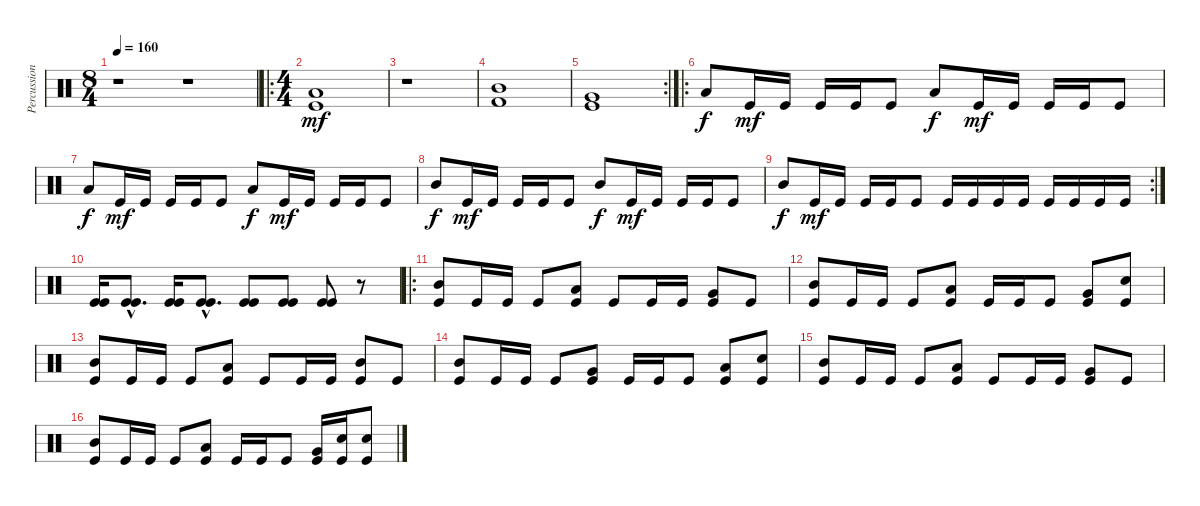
\track ("Percussion" "Percussion") {instrument percussion}
\staff {score}
\articulation defaults
\ts (8 4)
\tempo 160
\clef neutral
\ks c
r.1{dy mf} r.1 |
\ro
\ts (4 4)
("Low Tom (hit)" "Kick (hit)").1 |
r.1 |
("Mid Tom (hit)" "Kick (hit) 2").1 |
\rc 2
("Very Low Tom (hit)" "Kick (hit)").1 |
\ro "Low Tom (hit)".8{dy f} "Kick (hit)".16{dy mf} "Kick (hit)".16 "Kick (hit)".16 "Kick (hit)".16 "Kick (hit)".8 "Low Tom (hit)".8{dy f} "Kick (hit)".16{dy mf} "Kick (hit)".16 "Kick (hit)".16 "Kick (hit)".16 "Kick (hit)".8
|
"Low Tom (hit)".8{dy f} "Kick (hit)".16{dy mf} "Kick (hit)".16 "Kick (hit)".16 "Kick (hit)".16 "Kick (hit)".8 "Low Tom (hit)".8{dy f} "Kick (hit)".16{dy mf} "Kick (hit)".16 "Kick (hit)".16 "Kick (hit)".16 "Kick (hit)".8 |
"Mid Tom (hit)".8{dy f} "Kick (hit)".16{dy mf} "Kick (hit)".16 "Kick (hit)".16 "Kick (hit)".16 "Kick (hit)".8 "Mid Tom (hit)".8{dy f} "Kick (hit)".16{dy mf} "Kick (hit)".16 "Kick (hit)".16 "Kick (hit)".16 "Kick (hit)".8 |
\rc 2 "Mid Tom (hit)".8{dy f} "Kick (hit)".16{dy mf} "Kick (hit)".16 "Kick (hit)".16 "Kick (hit)".16 "Kick (hit)".8 "Kick (hit)".16 "Kick (hit)".16 "Kick (hit)".16 "Kick (hit)".16 "Kick (hit)".16 "Kick (hit)".16 "Kick (hit)".16 "Kick (hit)".16
|
("Kick (hit)" "Kick (hit)").16 ("Kick (hit)"{hac} "Kick (hit)"{hac}).8{d} ("Kick (hit)" "Kick (hit)").16 ("Kick (hit)"{hac} "Kick (hit)"{hac}).8{d} ("Kick (hit)" "Kick (hit)").8 ("Kick (hit)" "Kick (hit)").8 ("Kick (hit)" "Kick (hit)").8 r.8 |
\ro
("Kick (hit)" "Mid Tom (hit)").8 "Kick (hit)".16 "Kick (hit)".16 "Kick (hit)".8 ("Kick (hit)" "Low Tom (hit)").8 "Kick (hit)".8 "Kick (hit)".16 "Kick (hit)".16 ("Kick (hit)" "Very Low Tom (hit)").8 "Kick (hit)".8 |
("Kick (hit)" "Mid Tom (hit)").8 "Kick (hit)".16 "Kick (hit)".16 "Kick (hit)".8 ("Kick (hit)" "Low Tom (hit)").8 "Kick (hit)".16 "Kick (hit)".16 "Kick (hit)".8 ("Kick (hit)" "Very Low Tom (hit)").8 ("Kick (hit)" "Electric Snare (hit)").8 |
("Kick (hit)" "Mid Tom (hit)").8 "Kick (hit)".16 "Kick (hit)".16 "Kick (hit)".8 ("Kick (hit)" "Low Tom (hit)").8 "Kick (hit)".8 "Kick (hit)".16 "Kick (hit)".16 ("Kick (hit)" "Mid Tom (hit)").8 "Kick (hit)".8 |
("Kick (hit)" "Mid Tom (hit)").8 "Kick (hit)".16 "Kick (hit)".16 "Kick (hit)".8 ("Kick (hit)" "Very Low Tom (hit)").8 "Kick (hit)".16 "Kick (hit)".16 "Kick (hit)".8 ("Kick (hit)" "Low Tom (hit)").8 ("Kick (hit)" "Electric Snare (hit)").8 |
("Kick (hit)" "Mid Tom (hit)").8 "Kick (hit)".16 "Kick (hit)".16 "Kick (hit)".8 ("Kick (hit)" "Low Tom (hit)").8 "Kick (hit)".8 "Kick (hit)".16 "Kick (hit)".16 ("Kick (hit)" "Very Low Tom (hit)").8 "Kick (hit)".8 |
("Kick (hit)" "Mid Tom (hit)").8 "Kick (hit)".16 "Kick (hit)".16 "Kick (hit)".8 ("Kick (hit)" "Low Tom (hit)").8 "Kick (hit)".16 "Kick (hit)".16 "Kick (hit)".8 ("Kick (hit)" "Very Low Tom (hit)").16 ("Kick (hit)" "Electric Snare (hit)").16 ("Kick (hit)" "Snare (hit) 2").8
